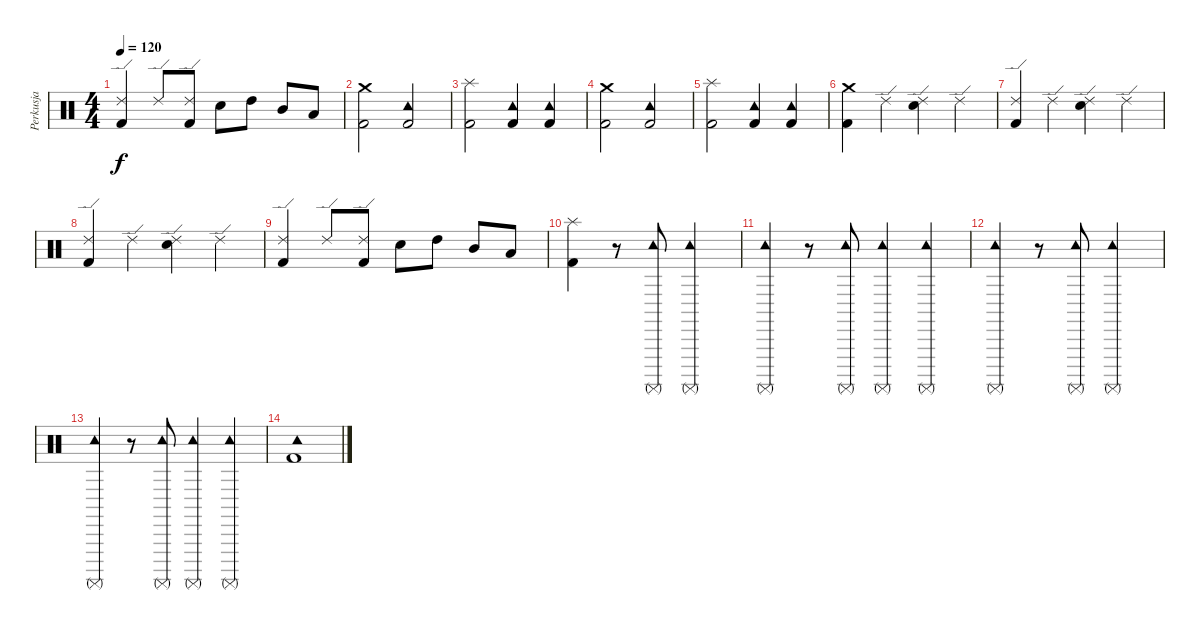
\track ("Perkusja" "Perkusja") {instrument percussion}
\staff {score}
\articulation defaults
\ts (4 4)
\tempo 120
\clef neutral
\ks c
("Ride (edge) 2" "Kick (hit) 2").4{dy f} "Ride (edge) 2".8 ("Ride (edge) 2" "Kick (hit) 2").8 "Snare (hit) 2".8 "High Tom (hit)".8 "Mid Tom (hit)".8 "Low Tom (hit)".8 |
("Crash medium (hit)" "Kick (hit) 2").2 ("Tambourine (hit)" "Kick (hit) 2").2 |
("Splash (hit)" "Kick (hit) 2").2 ("Tambourine (hit)" "Kick (hit) 2").4 ("Tambourine (hit)" "Kick (hit) 2").4 |
("Crash medium (hit)" "Kick (hit) 2").2 ("Tambourine (hit)" "Kick (hit) 2").2 |
("Splash (hit)" "Kick (hit) 2").2 ("Tambourine (hit)" "Kick (hit) 2").4 ("Tambourine (hit)" "Kick (hit) 2").4 |
("Crash medium (hit)" "Kick (hit) 2").4 "Ride (edge) 2".4 ("Ride (edge) 2" "Snare (hit) 2").4 "Ride (edge) 2".4 |
("Ride (edge) 2" "Kick (hit) 2").4 "Ride (edge) 2".4 ("Ride (edge) 2" "Snare (hit) 2").4 "Ride (edge) 2".4 |
("Ride (edge) 2" "Kick (hit) 2").4 "Ride (edge) 2".4 ("Ride (edge) 2" "Snare (hit) 2").4 "Ride (edge) 2".4 |
("Ride (edge) 2" "Kick (hit) 2").4 "Ride (edge) 2".8 ("Ride (edge) 2" "Kick (hit) 2").8 "Snare (hit) 2".8 "High Tom (hit)".8 "Mid Tom (hit)".8 "Low Tom (hit)".8 |
("Splash (hit)" "Kick (hit) 2").4 r.8 ("Tambourine (hit)" "Surdo (mute)").8 ("Tambourine (hit)" "Surdo (mute)").2 |
("Tambourine (hit)" "Surdo (mute)").4 r.8 ("Tambourine (hit)" "Surdo (mute)").8 ("Tambourine (hit)" "Surdo (mute)").4 ("Tambourine (hit)" "Surdo (mute)").4 |
("Tambourine (hit)" "Surdo (mute)").4 r.8 ("Tambourine (hit)" "Surdo (mute)").8 ("Tambourine (hit)" "Surdo (mute)").2 |
("Tambourine (hit)" "Surdo (mute)").4 r.8 ("Tambourine (hit)" "Surdo (mute)").8 ("Tambourine (hit)" "Surdo (mute)").4 ("Tambourine (hit)" "Surdo (mute)").4 |
("Tambourine (hit)" "Kick (hit) 2").1
